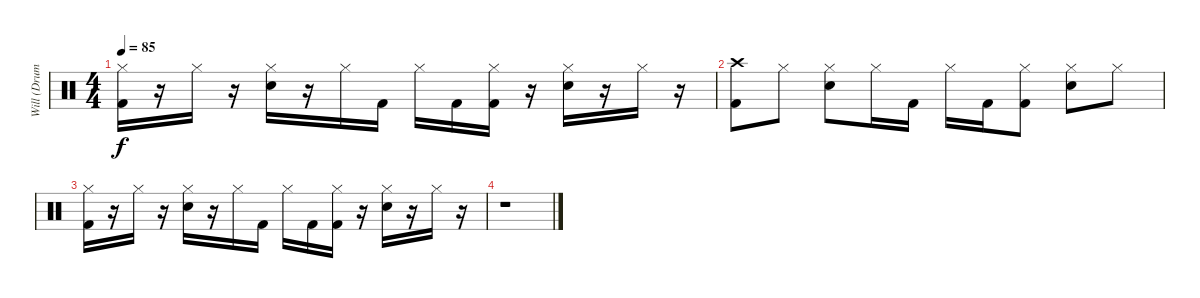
\track ("Will (Drums)" "Will (Drum") {instrument percussion}
\staff {score}
\articulation defaults
\ts (4 4)
\tempo 85
\clef neutral
\ks c
("Hi-Hat (closed)" "Kick (hit) 2").16{dy f} r.16 "Hi-Hat (closed)".16 r.16 ("Hi-Hat (closed)" "Snare (hit) 2").16 r.16 "Hi-Hat (closed)".16 "Kick (hit) 2".16 "Hi-Hat (closed)".16 "Kick (hit) 2".16 ("Hi-Hat (closed)" "Kick (hit) 2").16 r.16 ("Hi-Hat (closed)" "Snare (hit) 2").16 r.16 "Hi-Hat (closed)".16 r.16 |
("Crash high (hit)" "Kick (hit) 2").8 "Hi-Hat (closed)".8 ("Hi-Hat (closed)" "Snare (hit) 2").8 "Hi-Hat (closed)".16 "Kick (hit) 2".16 "Hi-Hat (closed)".16 "Kick (hit) 2".16 ("Hi-Hat (closed)" "Kick (hit) 2").8 ("Hi-Hat (closed)" "Snare (hit) 2").8 "Hi-Hat (closed)".8 |
("Hi-Hat (closed)" "Kick (hit) 2").16 r.16 "Hi-Hat (closed)".16 r.16 ("Hi-Hat (closed)" "Snare (hit) 2").16 r.16 "Hi-Hat (closed)".16 "Kick (hit) 2".16 "Hi-Hat (closed)".16 "Kick (hit) 2".16 ("Hi-Hat (closed)" "Kick (hit) 2").16 r.16 ("Hi-Hat (closed)" "Snare (hit) 2").16 r.16 "Hi-Hat (closed)".16 r.16 |
r.1
